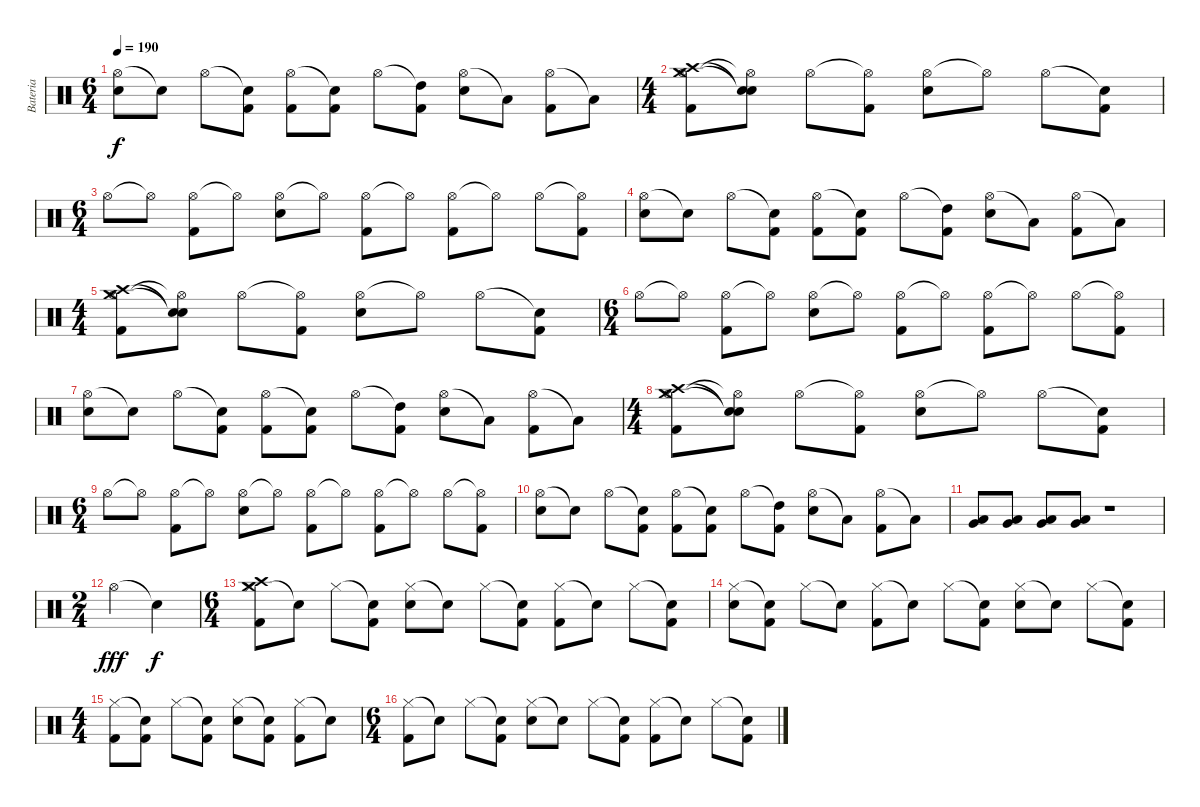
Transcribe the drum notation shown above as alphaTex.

\track ("Bateria" "Bateria") {instrument percussion}
\staff {score}
\articulation defaults
\ts (6 4)
\tempo 190
\clef neutral
\ks c
("Hi-Hat (open)" "Electric Snare (hit)").8{dy f} "Snare (hit)"{t}.8 "Hi-Hat (open)".8 ("Snare (hit)"{t} "Kick (hit) 2").8 ("Hi-Hat (open)" "Kick (hit) 2").8 ("Snare (hit)"{t} "Kick (hit) 2").8 "Hi-Hat (open)".8 ("High Tom (hit)"{t} "Kick (hit) 2").8 ("Hi-Hat (open)" "Electric Snare (hit)").8 "Low Tom (hit)"{t}.8 ("Hi-Hat (open)" "Kick (hit) 2").8 "Low Tom (hit)"{t}.8 |
\ts (4 4)
("Hi-Hat (open)" "Crash high (hit)" "Crash medium (hit)" "Kick (hit) 2").8 ("Snare (hit)"{t} "Snare (hit)"{t} "Hi-Hat (open)"{t}).8 "Hi-Hat (open)".8 ("Hi-Hat (open)"{t} "Kick (hit) 2").8 ("Hi-Hat (open)" "Electric Snare (hit)").8 "Hi-Hat (open)"{t}.8 "Hi-Hat (open)".8 ("Snare (hit)"{t} "Kick (hit) 2").8 |
\ts (6 4)
"Hi-Hat (open)".8 "Hi-Hat (open)"{t}.8 ("Hi-Hat (open)" "Kick (hit) 2").8 "Hi-Hat (open)"{t}.8 ("Hi-Hat (open)" "Electric Snare (hit)").8 "Hi-Hat (open)"{t}.8 ("Hi-Hat (open)" "Kick (hit) 2").8 "Hi-Hat (open)"{t}.8 ("Hi-Hat (open)" "Kick (hit) 2").8 "Hi-Hat (open)"{t}.8 "Hi-Hat (open)".8 ("Hi-Hat (open)"{t} "Kick (hit) 2").8 |
("Hi-Hat (open)" "Electric Snare (hit)").8 "Snare (hit)"{t}.8 "Hi-Hat (open)".8 ("Snare (hit)"{t} "Kick (hit) 2").8 ("Hi-Hat (open)" "Kick (hit) 2").8 ("Snare (hit)"{t} "Kick (hit) 2").8 "Hi-Hat (open)".8 ("High Tom (hit)"{t} "Kick (hit) 2").8 ("Hi-Hat (open)" "Electric Snare (hit)").8 "Low Tom (hit)"{t}.8 ("Hi-Hat (open)" "Kick (hit) 2").8 "Low Tom (hit)"{t}.8 |
\ts (4 4)
("Hi-Hat (open)" "Crash high (hit)" "Crash medium (hit)" "Kick (hit) 2").8 ("Snare (hit)"{t} "Snare (hit)"{t} "Hi-Hat (open)"{t}).8 "Hi-Hat (open)".8 ("Hi-Hat (open)"{t} "Kick (hit) 2").8 ("Hi-Hat (open)" "Electric Snare (hit)").8 "Hi-Hat (open)"{t}.8 "Hi-Hat (open)".8 ("Snare (hit)"{t} "Kick (hit) 2").8 |
\ts (6 4)
"Hi-Hat (open)".8 "Hi-Hat (open)"{t}.8 ("Hi-Hat (open)" "Kick (hit) 2").8 "Hi-Hat (open)"{t}.8 ("Hi-Hat (open)" "Electric Snare (hit)").8 "Hi-Hat (open)"{t}.8 ("Hi-Hat (open)" "Kick (hit) 2").8 "Hi-Hat (open)"{t}.8 ("Hi-Hat (open)" "Kick (hit) 2").8 "Hi-Hat (open)"{t}.8 "Hi-Hat (open)".8 ("Hi-Hat (open)"{t} "Kick (hit) 2").8 |
("Hi-Hat (open)" "Electric Snare (hit)").8 "Snare (hit)"{t}.8 "Hi-Hat (open)".8 ("Snare (hit)"{t} "Kick (hit) 2").8 ("Hi-Hat (open)" "Kick (hit) 2").8 ("Snare (hit)"{t} "Kick (hit) 2").8 "Hi-Hat (open)".8 ("High Tom (hit)"{t} "Kick (hit) 2").8 ("Hi-Hat (open)" "Electric Snare (hit)").8 "Low Tom (hit)"{t}.8 ("Hi-Hat (open)" "Kick (hit) 2").8 "Low Tom (hit)"{t}.8 |
\ts (4 4)
("Hi-Hat (open)" "Crash high (hit)" "Crash medium (hit)" "Kick (hit) 2").8 ("Snare (hit)"{t} "Snare (hit)"{t} "Hi-Hat (open)"{t}).8 "Hi-Hat (open)".8 ("Hi-Hat (open)"{t} "Kick (hit) 2").8 ("Hi-Hat (open)" "Electric Snare (hit)").8 "Hi-Hat (open)"{t}.8 "Hi-Hat (open)".8 ("Snare (hit)"{t} "Kick (hit) 2").8 |
\ts (6 4)
"Hi-Hat (open)".8 "Hi-Hat (open)"{t}.8 ("Hi-Hat (open)" "Kick (hit) 2").8 "Hi-Hat (open)"{t}.8 ("Hi-Hat (open)" "Electric Snare (hit)").8 "Hi-Hat (open)"{t}.8 ("Hi-Hat (open)" "Kick (hit) 2").8 "Hi-Hat (open)"{t}.8 ("Hi-Hat (open)" "Kick (hit) 2").8 "Hi-Hat (open)"{t}.8 "Hi-Hat (open)".8 ("Hi-Hat (open)"{t} "Kick (hit) 2").8 |
("Hi-Hat (open)" "Electric Snare (hit)").8 "Snare (hit)"{t}.8 "Hi-Hat (open)".8 ("Snare (hit)"{t} "Kick (hit) 2").8 ("Hi-Hat (open)" "Kick (hit) 2").8 ("Snare (hit)"{t} "Kick (hit) 2").8 "Hi-Hat (open)".8 ("High Tom (hit)"{t} "Kick (hit) 2").8 ("Hi-Hat (open)" "Electric Snare (hit)").8 "Low Tom (hit)"{t}.8 ("Hi-Hat (open)" "Kick (hit) 2").8 "Low Tom (hit)"{t}.8 |
("Very Low Tom (hit)" "Low Tom (hit)").8 ("Very Low Tom (hit)" "Low Tom (hit)").8 ("Very Low Tom (hit)" "Low Tom (hit)").8 ("Very Low Tom (hit)" "Low Tom (hit)").8 r.1 |
\ts (2 4)
"Hi-Hat (open)".4{dy fff} "Snare (hit)"{t}.4{dy f} |
\ts (6 4)
("Hi-Hat (closed)" "Crash high (hit)" "Crash medium (hit)" "Kick (hit) 2").8 "Snare (hit)"{t}.8 "Hi-Hat (closed)".8 ("Snare (hit)"{t} "Kick (hit) 2").8 ("Hi-Hat (closed)" "Electric Snare (hit)").8 "Snare (hit)"{t}.8 "Hi-Hat (closed)".8 ("Snare (hit)"{t} "Kick (hit) 2").8 ("Hi-Hat (closed)" "Kick (hit) 2").8 "Snare (hit)"{t}.8 "Hi-Hat (closed)".8 ("Snare (hit)"{t} "Kick (hit) 2").8 |
("Hi-Hat (closed)" "Electric Snare (hit)").8 ("Snare (hit)"{t} "Kick (hit) 2").8 "Hi-Hat (closed)".8 "Snare (hit)"{t}.8 ("Hi-Hat (closed)" "Kick (hit) 2").8 "Snare (hit)"{t}.8 "Hi-Hat (closed)".8 ("Snare (hit)"{t} "Kick (hit) 2").8 ("Hi-Hat (closed)" "Electric Snare (hit)").8 "Snare (hit)"{t}.8 "Hi-Hat (closed)".8 ("Snare (hit)"{t} "Kick (hit) 2").8 |
\ts (4 4)
("Hi-Hat (closed)" "Kick (hit) 2").8 ("Snare (hit)"{t} "Kick (hit) 2").8 "Hi-Hat (closed)".8 ("Snare (hit)"{t} "Kick (hit) 2").8 ("Hi-Hat (closed)" "Electric Snare (hit)").8 ("Snare (hit)"{t} "Kick (hit) 2").8 ("Hi-Hat (closed)" "Kick (hit) 2").8 "Snare (hit)"{t}.8 |
\ts (6 4)
("Hi-Hat (closed)" "Kick (hit) 2").8 "Snare (hit)"{t}.8 "Hi-Hat (closed)".8 ("Snare (hit)"{t} "Kick (hit) 2").8 ("Hi-Hat (closed)" "Electric Snare (hit)").8 "Snare (hit)"{t}.8 "Hi-Hat (closed)".8 ("Snare (hit)"{t} "Kick (hit) 2").8 ("Hi-Hat (closed)" "Kick (hit) 2").8 "Snare (hit)"{t}.8 "Hi-Hat (closed)".8 ("Snare (hit)"{t} "Kick (hit) 2").8
